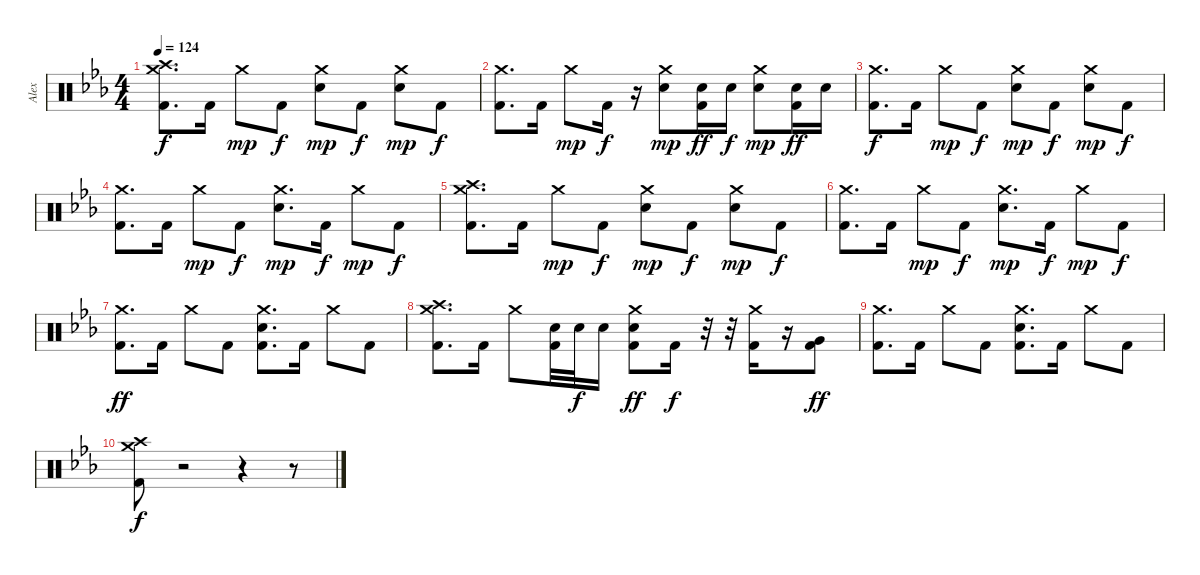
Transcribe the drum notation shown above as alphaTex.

\track ("Alex" "Alex") {instrument percussion}
\staff {score}
\articulation defaults
\ts (4 4)
\tempo 124
\clef neutral
\ks cminor
("Crash high (hit)" "Crash medium (hit)" "Kick (hit) 2").8{d dy f} "Kick (hit) 2".16 "Crash medium (hit)".8{dy mp} "Kick (hit) 2".8{dy f} ("Crash medium (hit)" "Electric Snare (hit)").8{dy mp} "Kick (hit) 2".8{dy f} ("Crash medium (hit)" "Electric Snare (hit)").8{dy mp} "Kick (hit) 2".8{dy f} |
("Crash medium (hit)" "Kick (hit) 2").8{d} "Kick (hit) 2".16 "Crash medium (hit)".8{dy mp} "Kick (hit) 2".16{dy f} r.16 ("Crash medium (hit)" "Electric Snare (hit)").8{dy mp} ("Electric Snare (hit)" "Kick (hit) 2").16{dy ff} "Electric Snare (hit)".16{dy f} ("Crash medium (hit)" "Electric Snare (hit)").8{dy mp} ("Electric Snare (hit)" "Kick (hit) 2").16{dy ff} "Electric Snare (hit)".16 |
("Crash medium (hit)" "Kick (hit) 2").8{d dy f} "Kick (hit) 2".16 "Crash medium (hit)".8{dy mp} "Kick (hit) 2".8{dy f} ("Crash medium (hit)" "Electric Snare (hit)").8{dy mp} "Kick (hit) 2".8{dy f} ("Crash medium (hit)" "Electric Snare (hit)").8{dy mp} "Kick (hit) 2".8{dy f} |
("Crash medium (hit)" "Kick (hit) 2").8{d} "Kick (hit) 2".16 "Crash medium (hit)".8{dy mp} "Kick (hit) 2".8{dy f} ("Crash medium (hit)" "Electric Snare (hit)").8{d dy mp} "Kick (hit) 2".16{dy f} "Crash medium (hit)".8{dy mp} "Kick (hit) 2".8{dy f} |
("Crash high (hit)" "Crash medium (hit)" "Kick (hit) 2").8{d} "Kick (hit) 2".16 "Crash medium (hit)".8{dy mp} "Kick (hit) 2".8{dy f} ("Crash medium (hit)" "Electric Snare (hit)").8{dy mp} "Kick (hit) 2".8{dy f} ("Crash medium (hit)" "Electric Snare (hit)").8{dy mp} "Kick (hit) 2".8{dy f} |
("Crash medium (hit)" "Kick (hit) 2").8{d} "Kick (hit) 2".16 "Crash medium (hit)".8{dy mp} "Kick (hit) 2".8{dy f} ("Crash medium (hit)" "Electric Snare (hit)").8{d dy mp} "Kick (hit) 2".16{dy f} "Crash medium (hit)".8{dy mp} "Kick (hit) 2".8{dy f} |
("Crash medium (hit)" "Kick (hit) 2").8{d dy ff} "Kick (hit) 2".16 "Crash medium (hit)".8 "Kick (hit) 2".8 ("Crash medium (hit)" "Electric Snare (hit)" "Kick (hit) 2").8{d} "Kick (hit) 2".16 "Crash medium (hit)".8 "Kick (hit) 2".8 |
("Crash medium (hit)" "Crash high (hit)" "Kick (hit) 2").8{d} "Kick (hit) 2".16 "Crash medium (hit)".8 ("Electric Snare (hit)" "Kick (hit) 2").32 "Electric Snare (hit)".32{dy f} "Electric Snare (hit)".16 ("Crash medium (hit)" "Electric Snare (hit)" "Kick (hit) 2").8{dy ff} "Kick (hit) 2".16{dy f} r.32 r.32 ("Crash medium (hit)" "Kick (hit) 2").16 r.16 ("Very Low Tom (hit)" "Kick (hit) 2").8{dy ff} |
("Crash medium (hit)" "Kick (hit) 2").8{d} "Kick (hit) 2".16 "Crash medium (hit)".8 "Kick (hit) 2".8 ("Crash medium (hit)" "Electric Snare (hit)" "Kick (hit) 2").8{d} "Kick (hit) 2".16 "Crash medium (hit)".8 "Kick (hit) 2".8 |
("Crash high (hit)" "Crash medium (hit)" "Kick (hit) 2").8{dy f} r.2 r.4 r.8
